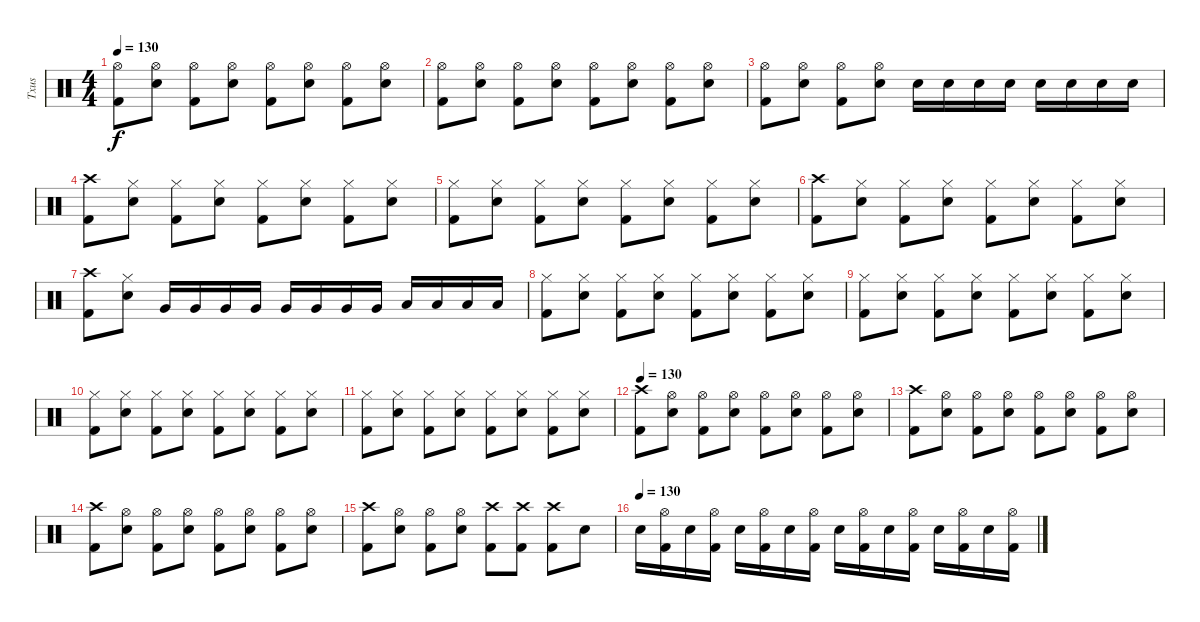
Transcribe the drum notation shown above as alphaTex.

\track ("Txus" "Txus") {instrument percussion}
\staff {score}
\articulation defaults
\ts (4 4)
\tempo 130
\clef neutral
\ks c
("Hi-Hat (open)" "Kick (hit) 2").8{dy f} ("Hi-Hat (open)" "Snare (hit) 2").8 ("Hi-Hat (open)" "Kick (hit) 2").8 ("Hi-Hat (open)" "Snare (hit) 2").8 ("Hi-Hat (open)" "Kick (hit) 2").8 ("Hi-Hat (open)" "Snare (hit) 2").8 ("Hi-Hat (open)" "Kick (hit) 2").8 ("Hi-Hat (open)" "Snare (hit) 2").8 |
("Hi-Hat (open)" "Kick (hit) 2").8 ("Hi-Hat (open)" "Snare (hit) 2").8 ("Hi-Hat (open)" "Kick (hit) 2").8 ("Hi-Hat (open)" "Snare (hit) 2").8 ("Hi-Hat (open)" "Kick (hit) 2").8 ("Hi-Hat (open)" "Snare (hit) 2").8 ("Hi-Hat (open)" "Kick (hit) 2").8 ("Hi-Hat (open)" "Snare (hit) 2").8 |
("Hi-Hat (open)" "Kick (hit) 2").8 ("Hi-Hat (open)" "Snare (hit) 2").8 ("Hi-Hat (open)" "Kick (hit) 2").8 ("Hi-Hat (open)" "Snare (hit) 2").8 "Snare (hit) 2".16 "Snare (hit) 2".16 "Snare (hit) 2".16 "Snare (hit) 2".16 "Snare (hit) 2".16 "Snare (hit) 2".16 "Snare (hit) 2".16 "Snare (hit) 2".16 |
("Crash high (hit)" "Kick (hit) 2").8 ("Hi-Hat (closed)" "Snare (hit) 2").8 ("Hi-Hat (closed)" "Kick (hit) 2").8 ("Hi-Hat (closed)" "Snare (hit) 2").8 ("Hi-Hat (closed)" "Kick (hit) 2").8 ("Hi-Hat (closed)" "Snare (hit) 2").8 ("Hi-Hat (closed)" "Kick (hit) 2").8 ("Hi-Hat (closed)" "Snare (hit) 2").8 |
("Hi-Hat (closed)" "Kick (hit) 2").8 ("Hi-Hat (closed)" "Snare (hit) 2").8 ("Hi-Hat (closed)" "Kick (hit) 2").8 ("Hi-Hat (closed)" "Snare (hit) 2").8 ("Hi-Hat (closed)" "Kick (hit) 2").8 ("Hi-Hat (closed)" "Snare (hit) 2").8 ("Hi-Hat (closed)" "Kick (hit) 2").8 ("Hi-Hat (closed)" "Snare (hit) 2").8 |
("Crash high (hit)" "Kick (hit) 2").8 ("Hi-Hat (closed)" "Snare (hit) 2").8 ("Hi-Hat (closed)" "Kick (hit) 2").8 ("Hi-Hat (closed)" "Snare (hit) 2").8 ("Hi-Hat (closed)" "Kick (hit) 2").8 ("Hi-Hat (closed)" "Snare (hit) 2").8 ("Hi-Hat (closed)" "Kick (hit) 2").8 ("Hi-Hat (closed)" "Snare (hit) 2").8 |
("Crash high (hit)" "Kick (hit) 2").8 ("Hi-Hat (closed)" "Snare (hit) 2").8 "Very Low Tom (hit)".16 "Very Low Tom (hit)".16 "Very Low Tom (hit)".16 "Very Low Tom (hit)".16 "Very Low Tom (hit)".16 "Very Low Tom (hit)".16 "Very Low Tom (hit)".16 "Very Low Tom (hit)".16 "Low Tom (hit)".16 "Low Tom (hit)".16 "Low Tom (hit)".16 "Low Tom (hit)".16 |
("Hi-Hat (closed)" "Kick (hit) 2").8 ("Hi-Hat (closed)" "Snare (hit) 2").8 ("Hi-Hat (closed)" "Kick (hit) 2").8 ("Hi-Hat (closed)" "Snare (hit) 2").8 ("Hi-Hat (closed)" "Kick (hit) 2").8 ("Hi-Hat (closed)" "Snare (hit) 2").8 ("Hi-Hat (closed)" "Kick (hit) 2").8 ("Hi-Hat (closed)" "Snare (hit) 2").8 |
("Hi-Hat (closed)" "Kick (hit) 2").8 ("Hi-Hat (closed)" "Snare (hit) 2").8 ("Hi-Hat (closed)" "Kick (hit) 2").8 ("Hi-Hat (closed)" "Snare (hit) 2").8 ("Hi-Hat (closed)" "Kick (hit) 2").8 ("Hi-Hat (closed)" "Snare (hit) 2").8 ("Hi-Hat (closed)" "Kick (hit) 2").8 ("Hi-Hat (closed)" "Snare (hit) 2").8 |
("Hi-Hat (closed)" "Kick (hit) 2").8 ("Hi-Hat (closed)" "Snare (hit) 2").8 ("Hi-Hat (closed)" "Kick (hit) 2").8 ("Hi-Hat (closed)" "Snare (hit) 2").8 ("Hi-Hat (closed)" "Kick (hit) 2").8 ("Hi-Hat (closed)" "Snare (hit) 2").8 ("Hi-Hat (closed)" "Kick (hit) 2").8 ("Hi-Hat (closed)" "Snare (hit) 2").8 |
("Hi-Hat (closed)" "Kick (hit) 2").8 ("Hi-Hat (closed)" "Snare (hit) 2").8 ("Hi-Hat (closed)" "Kick (hit) 2").8 ("Hi-Hat (closed)" "Snare (hit) 2").8 ("Hi-Hat (closed)" "Kick (hit) 2").8 ("Hi-Hat (closed)" "Snare (hit) 2").8 ("Hi-Hat (closed)" "Kick (hit) 2").8 ("Hi-Hat (closed)" "Snare (hit) 2").8 |
\tempo 200
\tempo 130
("Crash high (hit)" "Kick (hit) 2").8 ("Hi-Hat (open)" "Snare (hit) 2").8 ("Hi-Hat (open)" "Kick (hit) 2").8 ("Hi-Hat (open)" "Snare (hit) 2").8 ("Hi-Hat (open)" "Kick (hit) 2").8 ("Hi-Hat (open)" "Snare (hit) 2").8 ("Hi-Hat (open)" "Kick (hit) 2").8 ("Hi-Hat (open)" "Snare (hit) 2").8 |
("Crash high (hit)" "Kick (hit) 2").8 ("Hi-Hat (open)" "Snare (hit) 2").8 ("Hi-Hat (open)" "Kick (hit) 2").8 ("Hi-Hat (open)" "Snare (hit) 2").8 ("Hi-Hat (open)" "Kick (hit) 2").8 ("Hi-Hat (open)" "Snare (hit) 2").8 ("Hi-Hat (open)" "Kick (hit) 2").8 ("Hi-Hat (open)" "Snare (hit) 2").8 |
("Crash high (hit)" "Kick (hit) 2").8 ("Hi-Hat (open)" "Snare (hit) 2").8 ("Hi-Hat (open)" "Kick (hit) 2").8 ("Hi-Hat (open)" "Snare (hit) 2").8 ("Hi-Hat (open)" "Kick (hit) 2").8 ("Hi-Hat (open)" "Snare (hit) 2").8 ("Hi-Hat (open)" "Kick (hit) 2").8 ("Hi-Hat (open)" "Snare (hit) 2").8 |
("Crash high (hit)" "Kick (hit) 2").8 ("Hi-Hat (open)" "Snare (hit) 2").8 ("Hi-Hat (open)" "Kick (hit) 2").8 ("Hi-Hat (open)" "Snare (hit) 2").8 ("Crash high (hit)" "Kick (hit) 2").8 ("Crash high (hit)" "Kick (hit) 2").8 ("Crash high (hit)" "Kick (hit) 2").8 "Snare (hit) 2".8 |
\tempo 200
\tempo (130)
"Snare (hit) 2".16 ("Hi-Hat (open)" "Kick (hit) 2").16 "Snare (hit) 2".16 ("Hi-Hat (open)" "Kick (hit) 2").16 "Snare (hit) 2".16 ("Hi-Hat (open)" "Kick (hit) 2").16 "Snare (hit) 2".16 ("Hi-Hat (open)" "Kick (hit) 2").16 "Snare (hit) 2".16 ("Hi-Hat (open)" "Kick (hit) 2").16 "Snare (hit) 2".16 ("Hi-Hat (open)" "Kick (hit) 2").16 "Snare (hit) 2".16 ("Hi-Hat (open)" "Kick (hit) 2").16 "Snare (hit) 2".16 ("Hi-Hat (open)" "Kick (hit) 2").16
